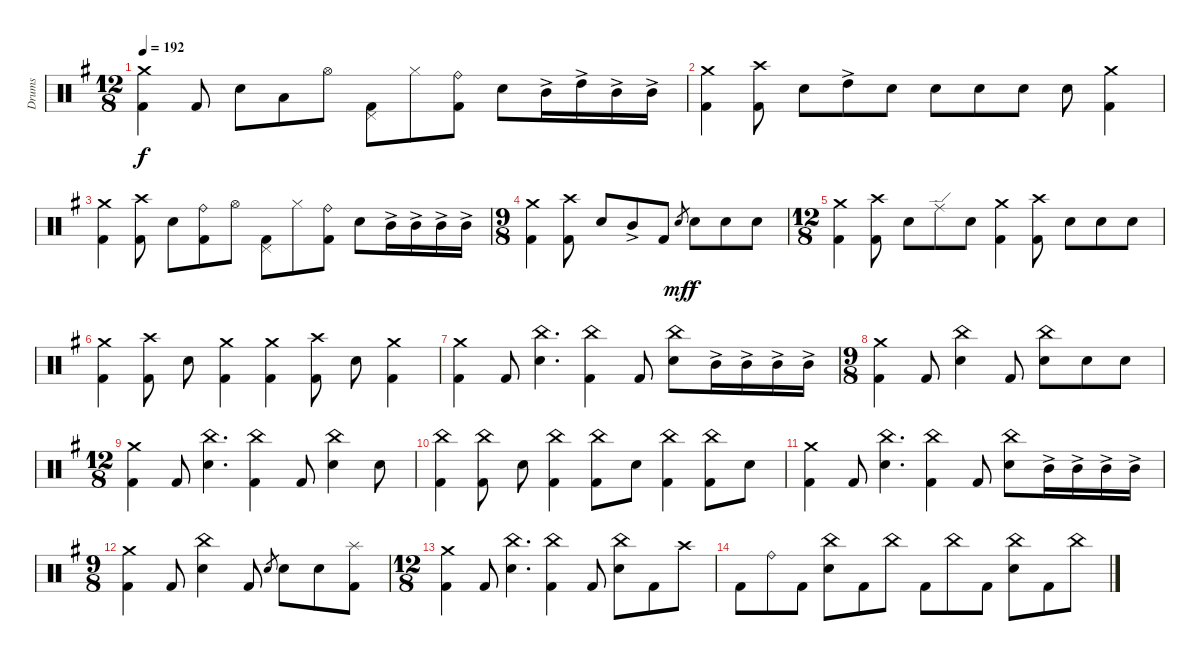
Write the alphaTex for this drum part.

\defaultSystemsLayout 4
\bracketExtendMode groupsimilarinstruments
\otherSystemsTrackNameOrientation horizontal
\track ("Drumkit" "Drums") {multiBarRest instrument percussion}
\staff {score}
\articulation defaults
\ts (12 8)
\beaming (8 3 3 3 3)
\tempo 192
\clef neutral
\ks g
("Crash medium (hit)"{acc forcenatural} "Kick (hit) 2"{acc forcenatural}).4{dy f} "Kick (hit) 2"{acc forcenatural}.8 "Snare (hit) 2"{acc forcenatural}.8 "Low Tom (hit)"{acc forcenatural}.8 "Hi-Hat (open)"{acc forcenatural}.8 ("Pedal Hi-Hat (hit)"{acc forcenatural} "Kick (hit) 2"{acc forcenatural}).8 "Hi-Hat (closed)"{acc forcenatural}.8 ("Ride (bell)"{acc forcenatural} "Kick (hit) 2"{acc forcenatural}).8 "Snare (hit) 2"{acc forcenatural}.8 "Mid Tom (hit)"{ac acc forcenatural}.16 "High Tom (hit)"{ac acc forcenatural}.16 "Mid Tom (hit)"{ac acc forcenatural}.16 "Mid Tom (hit)"{ac acc forcenatural}.16 |
("Crash medium (hit)"{acc forcenatural} "Kick (hit) 2"{acc forcenatural}).4 ("Kick (hit) 2"{acc forcenatural} "Crash high (hit)"{acc forcenatural}).8 "Snare (hit) 2"{acc forcenatural}.8 "High Tom (hit)"{ac acc forcenatural}.8 "Snare (hit) 2"{acc forcenatural}.8 "Snare (hit) 2"{acc forcenatural}.8 "Snare (hit) 2"{acc forcenatural}.8 "Snare (hit) 2"{acc forcenatural}.8 "Snare (hit) 2"{acc forcenatural}.8 ("Crash medium (hit)"{acc forcenatural} "Kick (hit) 2"{acc forcenatural}).4 |
("Crash medium (hit)"{acc forcenatural} "Kick (hit) 2"{acc forcenatural}).4 ("Kick (hit) 2"{acc forcenatural} "Crash high (hit)"{acc forcenatural}).8 "Snare (hit) 2"{acc forcenatural}.8 ("Ride (bell)"{acc forcenatural} "Kick (hit) 2"{acc forcenatural}).8 "Hi-Hat (open)"{acc forcenatural}.8 ("Pedal Hi-Hat (hit)"{acc forcenatural} "Kick (hit) 2"{acc forcenatural}).8 "Hi-Hat (closed)"{acc forcenatural}.8 ("Ride (bell)"{acc forcenatural} "Kick (hit) 2"{acc forcenatural}).8 "Snare (hit) 2"{acc forcenatural}.8 "Mid Tom (hit)"{ac acc forcenatural}.16 "Mid Tom (hit)"{ac acc forcenatural}.16 "Mid Tom (hit)"{ac acc forcenatural}.16 "Mid Tom (hit)"{ac acc forcenatural}.16 |
\ts (9 8)
\beaming (8 3 3 3 3)
("Crash medium (hit)"{acc forcenatural} "Kick (hit) 2"{acc forcenatural}).4 ("Kick (hit) 2"{acc forcenatural} "Crash high (hit)"{acc forcenatural}).8 "Snare (hit) 2"{acc forcenatural}.8 "Mid Tom (hit)"{ac acc forcenatural}.8 "Kick (hit) 2"{acc forcenatural}.8 "Snare (hit) 2"{acc forcenatural}.8{gr dy mf} "Snare (hit) 2"{acc forcenatural}.8{dy f} "Snare (hit) 2"{acc forcenatural}.8 "Snare (hit) 2"{acc forcenatural}.8 |
\ts (12 8)
\beaming (8 3 3 3 3)
("Crash medium (hit)"{acc forcenatural} "Kick (hit) 2"{acc forcenatural}).4 ("Kick (hit) 2"{acc forcenatural} "Crash high (hit)"{acc forcenatural}).8 "Snare (hit) 2"{acc forcenatural}.8 "Ride (edge)"{acc forcenatural}.8 "Snare (hit) 2"{acc forcenatural}.8 ("Kick (hit) 2"{acc forcenatural} "Crash medium (hit)"{acc forcenatural}).4 ("Kick (hit) 2"{acc forcenatural} "Crash high (hit)"{acc forcenatural}).8 "Snare (hit) 2"{acc forcenatural}.8 "Snare (hit) 2"{acc forcenatural}.8 "Snare (hit) 2"{acc forcenatural}.8 |
("Crash medium (hit)"{acc forcenatural} "Kick (hit) 2"{acc forcenatural}).4 ("Kick (hit) 2"{acc forcenatural} "Crash high (hit)"{acc forcenatural}).8 "Snare (hit) 2"{acc forcenatural}.8 ("Kick (hit) 2"{acc forcenatural} "Crash medium (hit)"{acc forcenatural}).4 ("Crash medium (hit)"{acc forcenatural} "Kick (hit) 2"{acc forcenatural}).4 ("Kick (hit) 2"{acc forcenatural} "Crash high (hit)"{acc forcenatural}).8 "Snare (hit) 2"{acc forcenatural}.8 ("Kick (hit) 2"{acc forcenatural} "Crash medium (hit)"{acc forcenatural}).4 |
("Crash medium (hit)"{acc forcenatural} "Kick (hit) 2"{acc forcenatural}).4 "Kick (hit) 2"{acc forcenatural}.8 ("Snare (hit) 2"{acc forcenatural} "China (hit)"{acc forcenatural}).4{d} ("Kick (hit) 2"{acc forcenatural} "China (hit)"{acc forcenatural}).4 "Kick (hit) 2"{acc forcenatural}.8 ("Snare (hit) 2"{acc forcenatural} "China (hit)"{acc forcenatural}).8 "Mid Tom (hit)"{ac acc forcenatural}.16 "Mid Tom (hit)"{ac acc forcenatural}.16 "Mid Tom (hit)"{ac acc forcenatural}.16 "Mid Tom (hit)"{ac acc forcenatural}.16 |
\ts (9 8)
\beaming (8 3 3 3 3)
("Crash medium (hit)"{acc forcenatural} "Kick (hit) 2"{acc forcenatural}).4 "Kick (hit) 2"{acc forcenatural}.8 ("Snare (hit) 2"{acc forcenatural} "China (hit)"{acc forcenatural}).4 "Kick (hit) 2"{acc forcenatural}.8 ("Snare (hit) 2"{acc forcenatural} "China (hit)"{acc forcenatural}).8 "Snare (hit) 2"{acc forcenatural}.8 "Snare (hit) 2"{acc forcenatural}.8 |
\ts (12 8)
\beaming (8 3 3 3 3)
("Crash medium (hit)"{acc forcenatural} "Kick (hit) 2"{acc forcenatural}).4 "Kick (hit) 2"{acc forcenatural}.8 ("Snare (hit) 2"{acc forcenatural} "China (hit)"{acc forcenatural}).4{d} ("Kick (hit) 2"{acc forcenatural} "China (hit)"{acc forcenatural}).4 "Kick (hit) 2"{acc forcenatural}.8 ("Snare (hit) 2"{acc forcenatural} "China (hit)"{acc forcenatural}).4 "Snare (hit) 2"{acc forcenatural}.8 |
("Kick (hit) 2"{acc forcenatural} "China (hit)"{acc forcenatural}).4 ("Kick (hit) 2"{acc forcenatural} "China (hit)"{acc forcenatural}).8 "Snare (hit) 2"{acc forcenatural}.8 ("Kick (hit) 2"{acc forcenatural} "China (hit)"{acc forcenatural}).4 ("Kick (hit) 2"{acc forcenatural} "China (hit)"{acc forcenatural}).8 "Snare (hit) 2"{acc forcenatural}.8 ("Kick (hit) 2"{acc forcenatural} "China (hit)"{acc forcenatural}).4 ("Kick (hit) 2"{acc forcenatural} "China (hit)"{acc forcenatural}).8 "Snare (hit) 2"{acc forcenatural}.8 |
("Crash medium (hit)"{acc forcenatural} "Kick (hit) 2"{acc forcenatural}).4 "Kick (hit) 2"{acc forcenatural}.8 ("Snare (hit) 2"{acc forcenatural} "China (hit)"{acc forcenatural}).4{d} ("Kick (hit) 2"{acc forcenatural} "China (hit)"{acc forcenatural}).4 "Kick (hit) 2"{acc forcenatural}.8 ("Snare (hit) 2"{acc forcenatural} "China (hit)"{acc forcenatural}).8 "Mid Tom (hit)"{ac acc forcenatural}.16 "Mid Tom (hit)"{ac acc forcenatural}.16 "Mid Tom (hit)"{ac acc forcenatural}.16 "Mid Tom (hit)"{ac acc forcenatural}.16 |
\ts (9 8)
\beaming (8 3 3 3 3)
("Crash medium (hit)"{acc forcenatural} "Kick (hit) 2"{acc forcenatural}).4 "Kick (hit) 2"{acc forcenatural}.8 ("Snare (hit) 2"{acc forcenatural} "China (hit)"{acc forcenatural}).4 "Kick (hit) 2"{acc forcenatural}.8 "Snare (hit) 2"{acc forcenatural}.8{gr} "Snare (hit) 2"{acc forcenatural}.8 "Snare (hit) 2"{acc forcenatural}.8 ("Splash (hit)"{acc forcenatural} "Kick (hit) 2"{acc forcenatural}).8 |
\ts (12 8)
\beaming (8 3 3 3 3)
("Crash medium (hit)"{acc forcenatural} "Kick (hit) 2"{acc forcenatural}).4 "Kick (hit) 2"{acc forcenatural}.8 ("Snare (hit) 2"{acc forcenatural} "China (hit)"{acc forcenatural}).4{d} ("Kick (hit) 2"{acc forcenatural} "China (hit)"{acc forcenatural}).4 "Kick (hit) 2"{acc forcenatural}.8 ("Snare (hit) 2"{acc forcenatural} "China (hit)"{acc forcenatural}).8 "Kick (hit) 2"{acc forcenatural}.8 "Crash high (hit)"{acc forcenatural}.8 |
"Kick (hit) 2"{acc forcenatural}.8 "Ride (bell)"{acc forcenatural}.8 "Kick (hit) 2"{acc forcenatural}.8 ("Snare (hit) 2"{acc forcenatural} "China (hit)"{acc forcenatural}).8 "Kick (hit) 2"{acc forcenatural}.8 "China (hit)"{acc forcenatural}.8 "Kick (hit) 2"{acc forcenatural}.8 "China (hit)"{acc forcenatural}.8 "Kick (hit) 2"{acc forcenatural}.8 ("Snare (hit) 2"{acc forcenatural} "China (hit)"{acc forcenatural}).8 "Kick (hit) 2"{acc forcenatural}.8 "China (hit)"{acc forcenatural}.8
